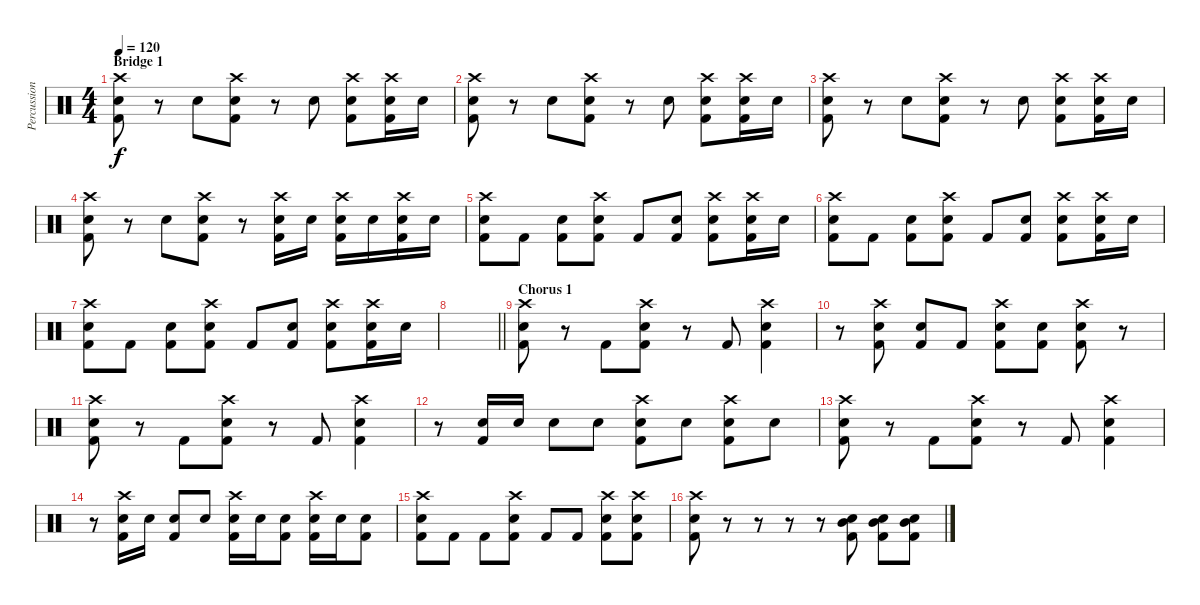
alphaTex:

\track ("Percussion" "Percussion") {instrument percussion}
\staff {score}
\articulation defaults
\ts (4 4)
\section ("" "Bridge 1")
\tempo 120
\clef neutral
\ks c
("Crash high (hit)" "Electric Snare (hit)" "Kick (hit) 2").8{dy f} r.8 "Electric Snare (hit)".8 ("Crash high (hit)" "Electric Snare (hit)" "Kick (hit) 2").8 r.8 "Electric Snare (hit)".8 ("Crash high (hit)" "Electric Snare (hit)" "Kick (hit) 2").8 ("Crash high (hit)" "Electric Snare (hit)" "Kick (hit) 2").16 "Electric Snare (hit)".16 |
("Crash high (hit)" "Electric Snare (hit)" "Kick (hit) 2").8 r.8 "Electric Snare (hit)".8 ("Crash high (hit)" "Electric Snare (hit)" "Kick (hit) 2").8 r.8 "Electric Snare (hit)".8 ("Crash high (hit)" "Electric Snare (hit)" "Kick (hit) 2").8 ("Crash high (hit)" "Electric Snare (hit)" "Kick (hit) 2").16 "Electric Snare (hit)".16 |
("Crash high (hit)" "Electric Snare (hit)" "Kick (hit) 2").8 r.8 "Electric Snare (hit)".8 ("Crash high (hit)" "Electric Snare (hit)" "Kick (hit) 2").8 r.8 "Electric Snare (hit)".8 ("Crash high (hit)" "Electric Snare (hit)" "Kick (hit) 2").8 ("Crash high (hit)" "Electric Snare (hit)" "Kick (hit) 2").16 "Electric Snare (hit)".16 |
("Crash high (hit)" "Electric Snare (hit)" "Kick (hit) 2").8 r.8 "Electric Snare (hit)".8 ("Crash high (hit)" "Electric Snare (hit)" "Kick (hit) 2").8 r.8 ("Crash high (hit)" "Electric Snare (hit)" "Kick (hit) 2").16 "Electric Snare (hit)".16 ("Crash high (hit)" "Electric Snare (hit)" "Kick (hit) 2").16 "Electric Snare (hit)".16 ("Crash high (hit)" "Electric Snare (hit)" "Kick (hit) 2").16 "Electric Snare (hit)".16 |
("Crash high (hit)" "Electric Snare (hit)" "Kick (hit) 2").8 "Kick (hit) 2".8 ("Electric Snare (hit)" "Kick (hit) 2").8 ("Crash high (hit)" "Electric Snare (hit)" "Kick (hit) 2").8 "Kick (hit) 2".8 ("Electric Snare (hit)" "Kick (hit) 2").8 ("Crash high (hit)" "Electric Snare (hit)" "Kick (hit) 2").8 ("Crash high (hit)" "Electric Snare (hit)" "Kick (hit) 2").16 "Electric Snare (hit)".16 |
("Crash high (hit)" "Electric Snare (hit)" "Kick (hit) 2").8 "Kick (hit) 2".8 ("Electric Snare (hit)" "Kick (hit) 2").8 ("Crash high (hit)" "Electric Snare (hit)" "Kick (hit) 2").8 "Kick (hit) 2".8 ("Electric Snare (hit)" "Kick (hit) 2").8 ("Crash high (hit)" "Electric Snare (hit)" "Kick (hit) 2").8 ("Crash high (hit)" "Electric Snare (hit)" "Kick (hit) 2").16 "Electric Snare (hit)".16 |
("Crash high (hit)" "Electric Snare (hit)" "Kick (hit) 2").8 "Kick (hit) 2".8 ("Electric Snare (hit)" "Kick (hit) 2").8 ("Crash high (hit)" "Electric Snare (hit)" "Kick (hit) 2").8 "Kick (hit) 2".8 ("Electric Snare (hit)" "Kick (hit) 2").8 ("Crash high (hit)" "Electric Snare (hit)" "Kick (hit) 2").8 ("Crash high (hit)" "Electric Snare (hit)" "Kick (hit) 2").16 "Electric Snare (hit)".16 |
\barLineRight lightlight
|
\section ("" "Chorus 1")
("Crash high (hit)" "Electric Snare (hit)" "Kick (hit) 2").8 r.8 "Kick (hit) 2".8 ("Crash high (hit)" "Electric Snare (hit)" "Kick (hit) 2").8 r.8 "Kick (hit) 2".8 ("Crash high (hit)" "Electric Snare (hit)" "Kick (hit) 2").4 |
r.8 ("Crash high (hit)" "Electric Snare (hit)" "Kick (hit) 2").8 ("Electric Snare (hit)" "Kick (hit) 2").8 "Kick (hit) 2".8 ("Crash high (hit)" "Electric Snare (hit)" "Kick (hit) 2").8 ("Electric Snare (hit)" "Kick (hit) 2").8 ("Crash high (hit)" "Electric Snare (hit)" "Kick (hit) 2").8 r.8 |
("Crash high (hit)" "Electric Snare (hit)" "Kick (hit) 2").8 r.8 "Kick (hit) 2".8 ("Crash high (hit)" "Electric Snare (hit)" "Kick (hit) 2").8 r.8 "Kick (hit) 2".8 ("Crash high (hit)" "Electric Snare (hit)" "Kick (hit) 2").4 |
r.8 ("Electric Snare (hit)" "Kick (hit) 2").16 "Electric Snare (hit)".16 "Electric Snare (hit)".8 "Electric Snare (hit)".8 ("Crash high (hit)" "Electric Snare (hit)" "Kick (hit) 2").8 "Electric Snare (hit)".8 ("Crash high (hit)" "Electric Snare (hit)" "Kick (hit) 2").8 "Electric Snare (hit)".8 |
("Crash high (hit)" "Electric Snare (hit)" "Kick (hit) 2").8 r.8 "Kick (hit) 2".8 ("Crash high (hit)" "Electric Snare (hit)" "Kick (hit) 2").8 r.8 "Kick (hit) 2".8 ("Crash high (hit)" "Electric Snare (hit)" "Kick (hit) 2").4 |
r.8 ("Crash high (hit)" "Electric Snare (hit)" "Kick (hit) 2").16 "Electric Snare (hit)".16 ("Electric Snare (hit)" "Kick (hit) 2").8 "Electric Snare (hit)".8 ("Crash high (hit)" "Electric Snare (hit)" "Kick (hit) 2").16 "Electric Snare (hit)".16 ("Electric Snare (hit)" "Kick (hit) 2").8 ("Crash high (hit)" "Electric Snare (hit)" "Kick (hit) 2").16 "Electric Snare (hit)".16 ("Electric Snare (hit)" "Kick (hit) 2").8 |
("Crash high (hit)" "Electric Snare (hit)" "Kick (hit) 2").8 "Kick (hit) 2".8 "Kick (hit) 2".8 ("Crash high (hit)" "Electric Snare (hit)" "Kick (hit) 2").8 "Kick (hit) 2".8 "Kick (hit) 2".8 ("Crash high (hit)" "Electric Snare (hit)" "Kick (hit) 2").8 ("Crash high (hit)" "Electric Snare (hit)" "Kick (hit) 2").8 |
("Crash high (hit)" "Electric Snare (hit)" "Kick (hit) 2").8 r.8 r.8 r.8 r.8 ("Mid Tom (hit)" "Electric Snare (hit)" "Kick (hit) 2").8 ("Mid Tom (hit)" "Electric Snare (hit)" "Kick (hit) 2").8 ("Mid Tom (hit)" "Electric Snare (hit)" "Kick (hit) 2").8
